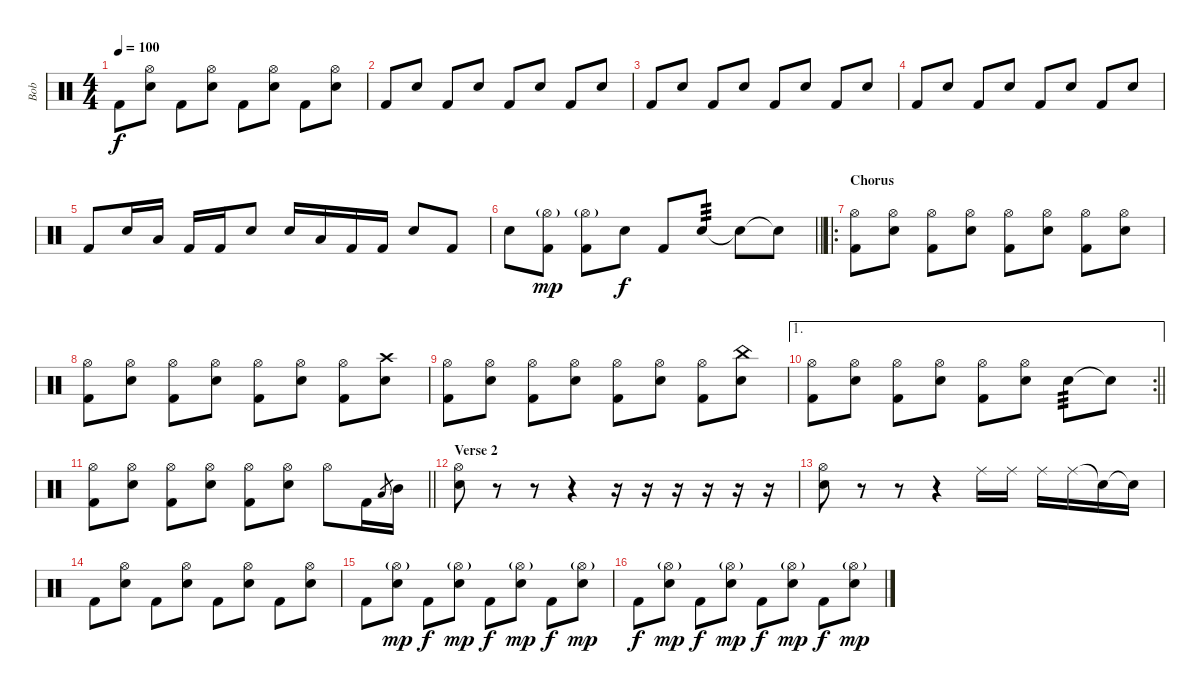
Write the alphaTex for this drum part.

\track ("Bob" "Bob") {instrument percussion}
\staff {score}
\articulation defaults
\ts (4 4)
\tempo 100
\clef neutral
\ks c "Kick (hit) 2".8{dy f}
("Hi-Hat (open)" "Electric Snare (hit)").8 "Kick (hit) 2".8 ("Hi-Hat (open)" "Electric Snare (hit)").8 "Kick (hit) 2".8 ("Hi-Hat (open)" "Electric Snare (hit)").8 "Kick (hit) 2".8 ("Hi-Hat (open)" "Electric Snare (hit)").8 |
"Kick (hit) 2".8 "Electric Snare (hit)".8 "Kick (hit) 2".8 "Electric Snare (hit)".8 "Kick (hit) 2".8 "Electric Snare (hit)".8 "Kick (hit) 2".8 "Electric Snare (hit)".8 |
"Kick (hit) 2".8 "Electric Snare (hit)".8 "Kick (hit) 2".8 "Electric Snare (hit)".8 "Kick (hit) 2".8 "Electric Snare (hit)".8 "Kick (hit) 2".8 "Electric Snare (hit)".8 |
"Kick (hit) 2".8 "Electric Snare (hit)".8 "Kick (hit) 2".8 "Electric Snare (hit)".8 "Kick (hit) 2".8 "Electric Snare (hit)".8 "Kick (hit) 2".8 "Electric Snare (hit)".8 |
"Kick (hit) 2".8 "Electric Snare (hit)".16 "Low Tom (hit)".16 "Kick (hit) 2".16 "Kick (hit) 2".16 "Electric Snare (hit)".8 "Electric Snare (hit)".16 "Low Tom (hit)".16 "Kick (hit) 2".16 "Kick (hit) 2".16 "Electric Snare (hit)".8 "Kick (hit) 2".8 |
\barLineRight lightlight "Electric Snare (hit)".8
("Hi-Hat (open)"{g} "Kick (hit) 2").8{dy mp} ("Hi-Hat (open)"{g} "Kick (hit) 2").8 "Electric Snare (hit)".8{dy f} "Kick (hit) 2".8 "Electric Snare (hit)".8{tp 3} "Snare (hit)"{t}.8 "Snare (hit)"{t}.8 |
\ro
\section ("" "Chorus")
("Hi-Hat (open)" "Kick (hit) 2").8 ("Hi-Hat (open)" "Electric Snare (hit)").8 ("Hi-Hat (open)" "Kick (hit) 2").8 ("Hi-Hat (open)" "Electric Snare (hit)").8 ("Hi-Hat (open)" "Kick (hit) 2").8 ("Hi-Hat (open)" "Electric Snare (hit)").8 ("Hi-Hat (open)" "Kick (hit) 2").8 ("Hi-Hat (open)" "Electric Snare (hit)").8 |
("Hi-Hat (open)" "Kick (hit) 2").8 ("Hi-Hat (open)" "Electric Snare (hit)").8 ("Hi-Hat (open)" "Kick (hit) 2").8 ("Hi-Hat (open)" "Electric Snare (hit)").8 ("Hi-Hat (open)" "Kick (hit) 2").8 ("Hi-Hat (open)" "Electric Snare (hit)").8 ("Hi-Hat (open)" "Kick (hit) 2").8 ("Crash high (hit)" "Electric Snare (hit)").8 |
("Hi-Hat (open)" "Kick (hit) 2").8 ("Hi-Hat (open)" "Electric Snare (hit)").8 ("Hi-Hat (open)" "Kick (hit) 2").8 ("Hi-Hat (open)" "Electric Snare (hit)").8 ("Hi-Hat (open)" "Kick (hit) 2").8 ("Hi-Hat (open)" "Electric Snare (hit)").8 ("Hi-Hat (open)" "Kick (hit) 2").8 ("China (hit)" "Electric Snare (hit)").8 |
\ae 1
\rc 2
\barLineRight lightlight
("Hi-Hat (open)" "Kick (hit) 2").8 ("Hi-Hat (open)" "Electric Snare (hit)").8 ("Hi-Hat (open)" "Kick (hit) 2").8 ("Hi-Hat (open)" "Electric Snare (hit)").8 ("Hi-Hat (open)" "Kick (hit) 2").8 ("Hi-Hat (open)" "Electric Snare (hit)").8 "Electric Snare (hit)".8{tp 3} "Electric Snare (hit)"{t}.8 |
\barLineRight lightlight
("Hi-Hat (open)" "Kick (hit) 2").8 ("Hi-Hat (open)" "Electric Snare (hit)").8 ("Hi-Hat (open)" "Kick (hit) 2").8 ("Hi-Hat (open)" "Electric Snare (hit)").8 ("Hi-Hat (open)" "Kick (hit) 2").8 ("Hi-Hat (open)" "Electric Snare (hit)").8 "Hi-Hat (open)".8 "Kick (hit) 2".16 "Low Tom (hit)".8{gr} "Mid Tom (hit)".16 |
\section ("" "Verse 2")
("Hi-Hat (open)" "Electric Snare (hit)").8 r.8 r.8 r.4 r.16 r.16 r.16 r.16 r.16 r.16 |
("Hi-Hat (open)" "Electric Snare (hit)").8 r.8 r.8 r.4 "Ride (middle)".16 "Ride (middle)".16 "Ride (middle)".16 "Ride (middle)".16 "Snare (hit)"{t}.16 "Snare (hit)"{t}.16 |
"Kick (hit) 2".8 ("Hi-Hat (open)" "Electric Snare (hit)").8 "Kick (hit) 2".8 ("Hi-Hat (open)" "Electric Snare (hit)").8 "Kick (hit) 2".8 ("Hi-Hat (open)" "Electric Snare (hit)").8 "Kick (hit) 2".8 ("Hi-Hat (open)" "Electric Snare (hit)").8 |
"Kick (hit) 2".8 ("Hi-Hat (open)"{g} "Electric Snare (hit)").8{dy mp} "Kick (hit) 2".8{dy f} ("Hi-Hat (open)"{g} "Electric Snare (hit)").8{dy mp} "Kick (hit) 2".8{dy f} ("Hi-Hat (open)"{g} "Electric Snare (hit)").8{dy mp} "Kick (hit) 2".8{dy f} ("Hi-Hat (open)"{g} "Electric Snare (hit)").8{dy mp} |
"Kick (hit) 2".8{dy f} ("Hi-Hat (open)"{g} "Electric Snare (hit)").8{dy mp} "Kick (hit) 2".8{dy f} ("Hi-Hat (open)"{g} "Electric Snare (hit)").8{dy mp} "Kick (hit) 2".8{dy f} ("Hi-Hat (open)"{g} "Electric Snare (hit)").8{dy mp} "Kick (hit) 2".8{dy f} ("Hi-Hat (open)"{g} "Electric Snare (hit)").8{dy mp}
